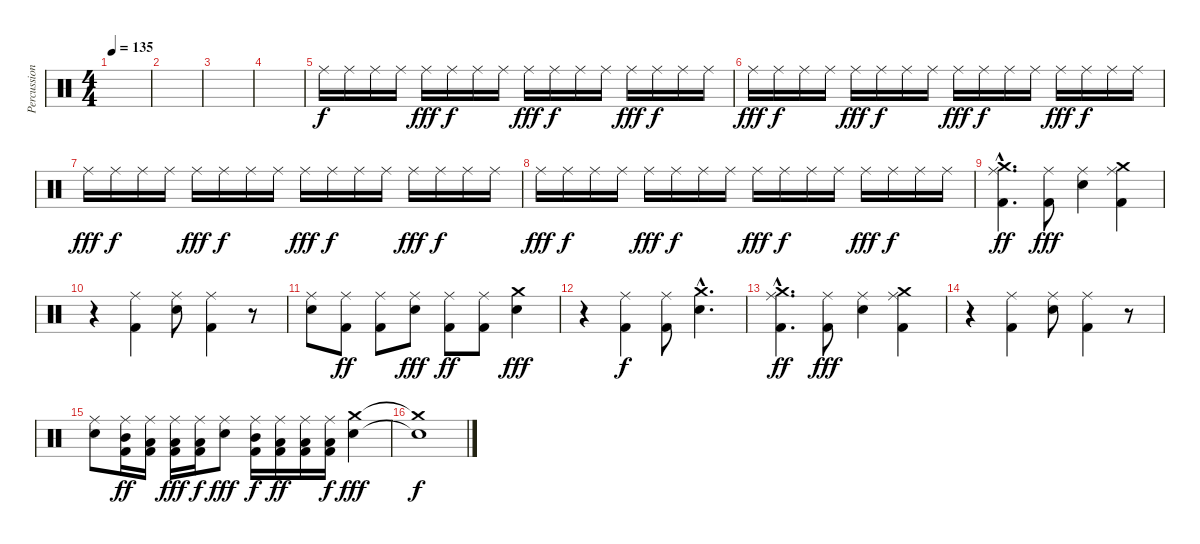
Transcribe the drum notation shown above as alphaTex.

\track ("Percussioni" "Percussion") {instrument percussion}
\staff {score}
\articulation defaults
\ts (4 4)
\tempo 135
\clef neutral
\ks c
|
|
|
|
"Ride (middle)".16 "Ride (middle)".16{dy f} "Ride (middle)".16 "Ride (middle)".16 "Ride (middle)".16{dy fff} "Ride (middle)".16{dy f} "Ride (middle)".16 "Ride (middle)".16 "Ride (middle)".16{dy fff} "Ride (middle)".16{dy f} "Ride (middle)".16 "Ride (middle)".16 "Ride (middle)".16{dy fff} "Ride (middle)".16{dy f} "Ride (middle)".16 "Ride (middle)".16 |
"Ride (middle)".16{dy fff} "Ride (middle)".16{dy f} "Ride (middle)".16 "Ride (middle)".16 "Ride (middle)".16{dy fff} "Ride (middle)".16{dy f} "Ride (middle)".16 "Ride (middle)".16 "Ride (middle)".16{dy fff} "Ride (middle)".16{dy f} "Ride (middle)".16 "Ride (middle)".16 "Ride (middle)".16{dy fff} "Ride (middle)".16{dy f} "Ride (middle)".16 "Ride (middle)".16 |
"Ride (middle)".16{dy fff} "Ride (middle)".16{dy f} "Ride (middle)".16 "Ride (middle)".16 "Ride (middle)".16{dy fff} "Ride (middle)".16{dy f} "Ride (middle)".16 "Ride (middle)".16 "Ride (middle)".16{dy fff} "Ride (middle)".16{dy f} "Ride (middle)".16 "Ride (middle)".16 "Ride (middle)".16{dy fff} "Ride (middle)".16{dy f} "Ride (middle)".16 "Ride (middle)".16 |
"Ride (middle)".16{dy fff} "Ride (middle)".16{dy f} "Ride (middle)".16 "Ride (middle)".16 "Ride (middle)".16{dy fff} "Ride (middle)".16{dy f} "Ride (middle)".16 "Ride (middle)".16 "Ride (middle)".16{dy fff} "Ride (middle)".16{dy f} "Ride (middle)".16 "Ride (middle)".16 "Ride (middle)".16{dy fff} "Ride (middle)".16{dy f} "Ride (middle)".16 "Ride (middle)".16 |
("Ride (middle)"{hac} "Kick (hit) 2"{hac} "Crash medium (hit)"{hac}).4{d dy ff} ("Ride (middle)" "Kick (hit) 2").8{dy fff} ("Ride (middle)" "Snare (hit) 2").4 ("Ride (middle)" "Kick (hit) 2" "Crash medium (hit)").4 |
r.4 ("Ride (middle)" "Kick (hit) 2").4 ("Ride (middle)" "Snare (hit) 2").8 ("Ride (middle)" "Kick (hit) 2").4 r.8 |
("Ride (middle)" "Snare (hit) 2").8 ("Ride (middle)" "Kick (hit) 2").8{dy ff} ("Ride (middle)" "Kick (hit) 2").8 ("Ride (middle)" "Snare (hit) 2").8{dy fff} ("Ride (middle)" "Kick (hit) 2").8{dy ff} ("Ride (middle)" "Kick (hit) 2").8 ("Crash medium (hit)" "Snare (hit) 2").4{dy fff} |
r.4 ("Ride (middle)" "Kick (hit) 2").4{dy f} ("Ride (middle)" "Kick (hit) 2").8 ("Crash medium (hit)"{hac} "Snare (hit) 2"{hac}).4{d} |
("Ride (middle)"{hac} "Kick (hit) 2"{hac} "Crash medium (hit)"{hac}).4{d dy ff} ("Ride (middle)" "Kick (hit) 2").8{dy fff} ("Ride (middle)" "Snare (hit) 2").4 ("Ride (middle)" "Kick (hit) 2" "Crash medium (hit)").4 |
r.4 ("Ride (middle)" "Kick (hit) 2").4 ("Ride (middle)" "Snare (hit) 2").8 ("Ride (middle)" "Kick (hit) 2").4 r.8 |
("Ride (middle)" "Snare (hit) 2").8 ("Ride (middle)" "Kick (hit) 2" "Mid Tom (hit)").16{dy ff} ("Ride (middle)" "Kick (hit) 2" "Low Tom (hit)").16 ("Ride (middle)" "Kick (hit) 2" "Low Tom (hit)").16{dy fff} ("Ride (middle)" "Kick (hit) 2" "Low Tom (hit)").16{dy f} ("Ride (middle)" "Snare (hit) 2").8{dy fff} ("Ride (middle)" "Kick (hit) 2" "Mid Tom (hit)").16{dy f} ("Ride (middle)" "Kick (hit) 2" "Low Tom (hit)").16{dy ff} ("Ride (middle)" "Kick (hit) 2" "Low Tom (hit)").16 ("Ride (middle)" "Kick (hit) 2" "Low Tom (hit)").16{dy f} ("Crash medium (hit)" "Snare (hit) 2").4{dy fff} |
("Crash medium (hit)"{t} "Snare (hit) 2"{t}).1{dy f}
